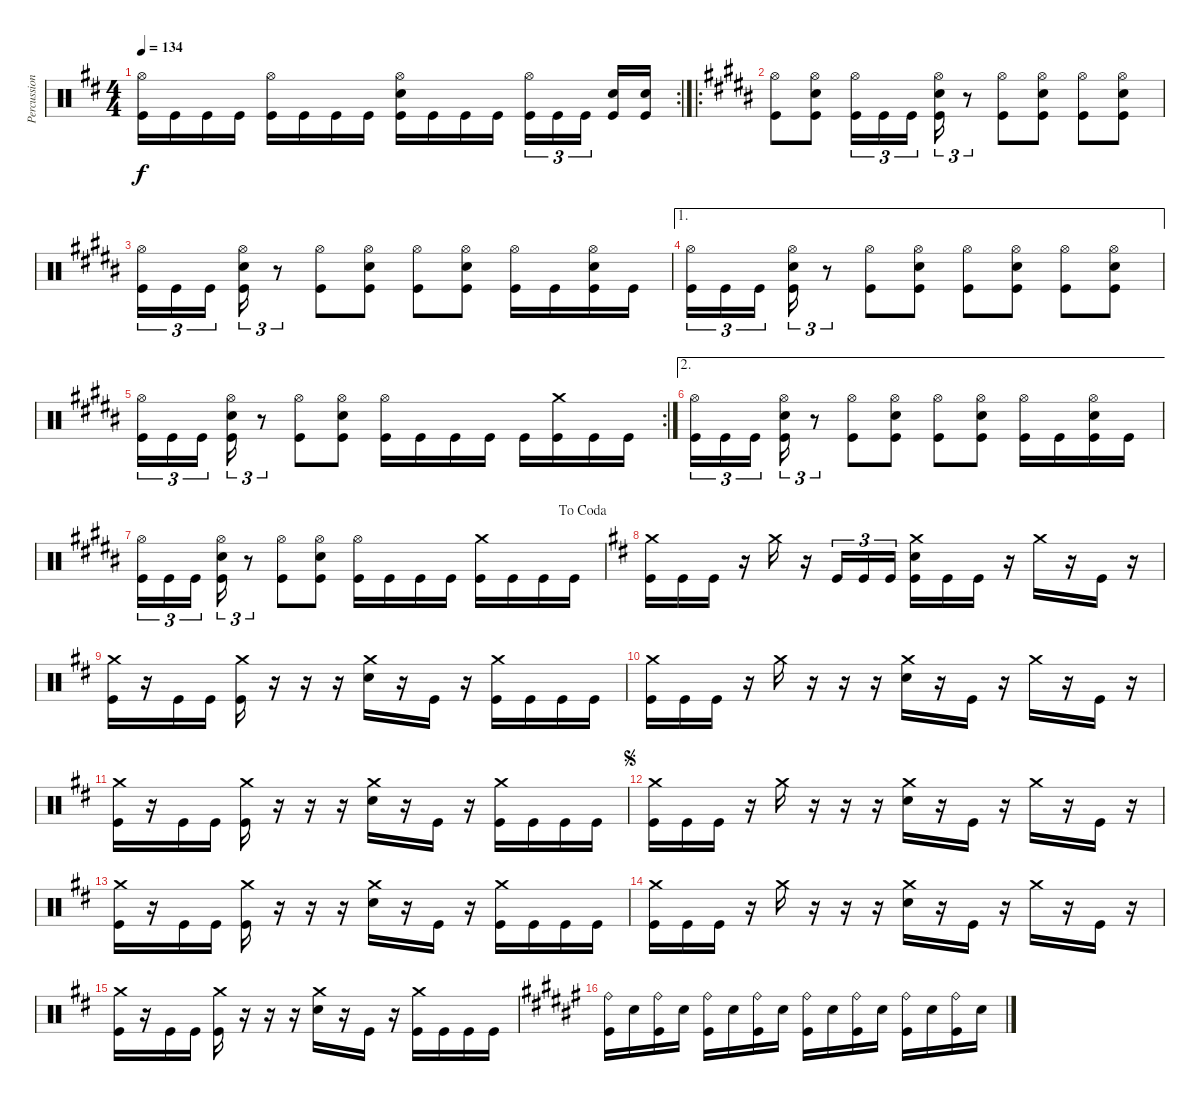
\track ("Percussion" "Percussion") {instrument percussion}
\staff {score}
\articulation defaults
\rc 2
\ts (4 4)
\tempo 134
\clef neutral
\ks d
("Hi-Hat (open)" "Kick (hit)").16{dy f} "Kick (hit)".16 "Kick (hit)".16 "Kick (hit)".16 ("Hi-Hat (open)" "Kick (hit)").16 "Kick (hit)".16 "Kick (hit)".16 "Kick (hit)".16 ("Hi-Hat (open)" "Electric Snare (hit)" "Kick (hit)").16 "Kick (hit)".16 "Kick (hit)".16 "Kick (hit)".16 ("Hi-Hat (open)" "Kick (hit)").16{tu (3 2)} "Kick (hit)".16{tu (3 2)} "Kick (hit)".16{tu (3 2) beam splitsecondary} ("Electric Snare (hit)" "Kick (hit)").16 ("Electric Snare (hit)" "Kick (hit)").16 |
\ro
\ks b
("Hi-Hat (open)" "Kick (hit)").8 ("Hi-Hat (open)" "Electric Snare (hit)" "Kick (hit)").8 ("Hi-Hat (open)" "Kick (hit)").16{tu (3 2)} "Kick (hit)".16{tu (3 2)} "Kick (hit)".16{tu (3 2) beam splitsecondary} ("Hi-Hat (open)" "Electric Snare (hit)" "Kick (hit)").16{tu (3 2)} r.8{tu (3 2)} ("Hi-Hat (open)" "Kick (hit)").8 ("Hi-Hat (open)" "Electric Snare (hit)" "Kick (hit)").8 ("Hi-Hat (open)" "Kick (hit)").8 ("Hi-Hat (open)" "Electric Snare (hit)" "Kick (hit)").8 |
("Hi-Hat (open)" "Kick (hit)").16{tu (3 2)} "Kick (hit)".16{tu (3 2)} "Kick (hit)".16{tu (3 2) beam splitsecondary} ("Hi-Hat (open)" "Electric Snare (hit)" "Kick (hit)").16{tu (3 2)} r.8{tu (3 2)} ("Hi-Hat (open)" "Kick (hit)").8 ("Hi-Hat (open)" "Electric Snare (hit)" "Kick (hit)").8 ("Hi-Hat (open)" "Kick (hit)").8 ("Hi-Hat (open)" "Electric Snare (hit)" "Kick (hit)").8 ("Hi-Hat (open)" "Kick (hit)").16 "Kick (hit)".16 ("Hi-Hat (open)" "Electric Snare (hit)" "Kick (hit)").16 "Kick (hit)".16 |
\ae 1
("Hi-Hat (open)" "Kick (hit)").16{tu (3 2)} "Kick (hit)".16{tu (3 2)} "Kick (hit)".16{tu (3 2) beam splitsecondary} ("Hi-Hat (open)" "Electric Snare (hit)" "Kick (hit)").16{tu (3 2)} r.8{tu (3 2)} ("Hi-Hat (open)" "Kick (hit)").8 ("Hi-Hat (open)" "Electric Snare (hit)" "Kick (hit)").8 ("Hi-Hat (open)" "Kick (hit)").8 ("Hi-Hat (open)" "Electric Snare (hit)" "Kick (hit)").8 ("Hi-Hat (open)" "Kick (hit)").8 ("Hi-Hat (open)" "Electric Snare (hit)" "Kick (hit)").8 |
\rc 2
("Hi-Hat (open)" "Kick (hit)").16{tu (3 2)} "Kick (hit)".16{tu (3 2)} "Kick (hit)".16{tu (3 2) beam splitsecondary} ("Hi-Hat (open)" "Electric Snare (hit)" "Kick (hit)").16{tu (3 2)} r.8{tu (3 2)} ("Hi-Hat (open)" "Kick (hit)").8 ("Hi-Hat (open)" "Electric Snare (hit)" "Kick (hit)").8 ("Hi-Hat (open)" "Kick (hit)").16 "Kick (hit)".16 "Kick (hit)".16 "Kick (hit)".16 "Kick (hit)".16 ("Crash medium (hit)" "Kick (hit)").16 "Kick (hit)".16 "Kick (hit)".16 |
\ae 2
("Hi-Hat (open)" "Kick (hit)").16{tu (3 2)} "Kick (hit)".16{tu (3 2)} "Kick (hit)".16{tu (3 2) beam splitsecondary} ("Hi-Hat (open)" "Electric Snare (hit)" "Kick (hit)").16{tu (3 2)} r.8{tu (3 2)} ("Hi-Hat (open)" "Kick (hit)").8 ("Hi-Hat (open)" "Electric Snare (hit)" "Kick (hit)").8 ("Hi-Hat (open)" "Kick (hit)").8 ("Hi-Hat (open)" "Electric Snare (hit)" "Kick (hit)").8 ("Hi-Hat (open)" "Kick (hit)").16 "Kick (hit)".16 ("Hi-Hat (open)" "Electric Snare (hit)" "Kick (hit)").16 "Kick (hit)".16 |
\jump dacoda
("Hi-Hat (open)" "Kick (hit)").16{tu (3 2)} "Kick (hit)".16{tu (3 2)} "Kick (hit)".16{tu (3 2) beam splitsecondary} ("Hi-Hat (open)" "Electric Snare (hit)" "Kick (hit)").16{tu (3 2)} r.8{tu (3 2)} ("Hi-Hat (open)" "Kick (hit)").8 ("Hi-Hat (open)" "Electric Snare (hit)" "Kick (hit)").8 ("Hi-Hat (open)" "Kick (hit)").16 "Kick (hit)".16 "Kick (hit)".16 "Kick (hit)".16 ("Crash medium (hit)" "Kick (hit)").16 "Kick (hit)".16 "Kick (hit)".16 "Kick (hit)".16 |
\ks d
("Crash medium (hit)" "Kick (hit)").16 "Kick (hit)".16 "Kick (hit)".16 r.16 "Crash medium (hit)".16 r.16 "Kick (hit)".16{tu (3 2)} "Kick (hit)".16{tu (3 2)} "Kick (hit)".16{tu (3 2)} ("Crash medium (hit)" "Electric Snare (hit)" "Kick (hit)").16 "Kick (hit)".16 "Kick (hit)".16 r.16 "Crash medium (hit)".16 r.16 "Kick (hit)".16 r.16 |
("Crash medium (hit)" "Kick (hit)").16 r.16 "Kick (hit)".16 "Kick (hit)".16 ("Crash medium (hit)" "Kick (hit)").16 r.16 r.16 r.16 ("Crash medium (hit)" "Electric Snare (hit)").16 r.16 "Kick (hit)".16 r.16 ("Crash medium (hit)" "Kick (hit)").16 "Kick (hit)".16 "Kick (hit)".16 "Kick (hit)".16 |
("Crash medium (hit)" "Kick (hit)").16 "Kick (hit)".16 "Kick (hit)".16 r.16 "Crash medium (hit)".16 r.16 r.16 r.16 ("Crash medium (hit)" "Electric Snare (hit)").16 r.16 "Kick (hit)".16 r.16 "Crash medium (hit)".16 r.16 "Kick (hit)".16 r.16 |
("Crash medium (hit)" "Kick (hit)").16 r.16 "Kick (hit)".16 "Kick (hit)".16 ("Crash medium (hit)" "Kick (hit)").16 r.16 r.16 r.16 ("Crash medium (hit)" "Electric Snare (hit)").16 r.16 "Kick (hit)".16 r.16 ("Crash medium (hit)" "Kick (hit)").16 "Kick (hit)".16 "Kick (hit)".16 "Kick (hit)".16 |
\jump segno
("Crash medium (hit)" "Kick (hit)").16 "Kick (hit)".16 "Kick (hit)".16 r.16 "Crash medium (hit)".16 r.16 r.16 r.16 ("Crash medium (hit)" "Electric Snare (hit)").16 r.16 "Kick (hit)".16 r.16 "Crash medium (hit)".16 r.16 "Kick (hit)".16 r.16 |
("Crash medium (hit)" "Kick (hit)").16 r.16 "Kick (hit)".16 "Kick (hit)".16 ("Crash medium (hit)" "Kick (hit)").16 r.16 r.16 r.16 ("Crash medium (hit)" "Electric Snare (hit)").16 r.16 "Kick (hit)".16 r.16 ("Crash medium (hit)" "Kick (hit)").16 "Kick (hit)".16 "Kick (hit)".16 "Kick (hit)".16 |
("Crash medium (hit)" "Kick (hit)").16 "Kick (hit)".16 "Kick (hit)".16 r.16 "Crash medium (hit)".16 r.16 r.16 r.16 ("Crash medium (hit)" "Electric Snare (hit)").16 r.16 "Kick (hit)".16 r.16 "Crash medium (hit)".16 r.16 "Kick (hit)".16 r.16 |
("Crash medium (hit)" "Kick (hit)").16 r.16 "Kick (hit)".16 "Kick (hit)".16 ("Crash medium (hit)" "Kick (hit)").16 r.16 r.16 r.16 ("Crash medium (hit)" "Electric Snare (hit)").16 r.16 "Kick (hit)".16 r.16 ("Crash medium (hit)" "Kick (hit)").16 "Kick (hit)".16 "Kick (hit)".16 "Kick (hit)".16 |
\ks f#
("Ride (bell)" "Kick (hit)").16 "Electric Snare (hit)".16 ("Ride (bell)" "Kick (hit)").16 "Electric Snare (hit)".16 ("Ride (bell)" "Kick (hit)").16 "Electric Snare (hit)".16 ("Ride (bell)" "Kick (hit)").16 "Electric Snare (hit)".16 ("Ride (bell)" "Kick (hit)").16 "Electric Snare (hit)".16 ("Ride (bell)" "Kick (hit)").16 "Electric Snare (hit)".16 ("Ride (bell)" "Kick (hit)").16 "Electric Snare (hit)".16 ("Ride (bell)" "Kick (hit)").16 "Electric Snare (hit)".16
